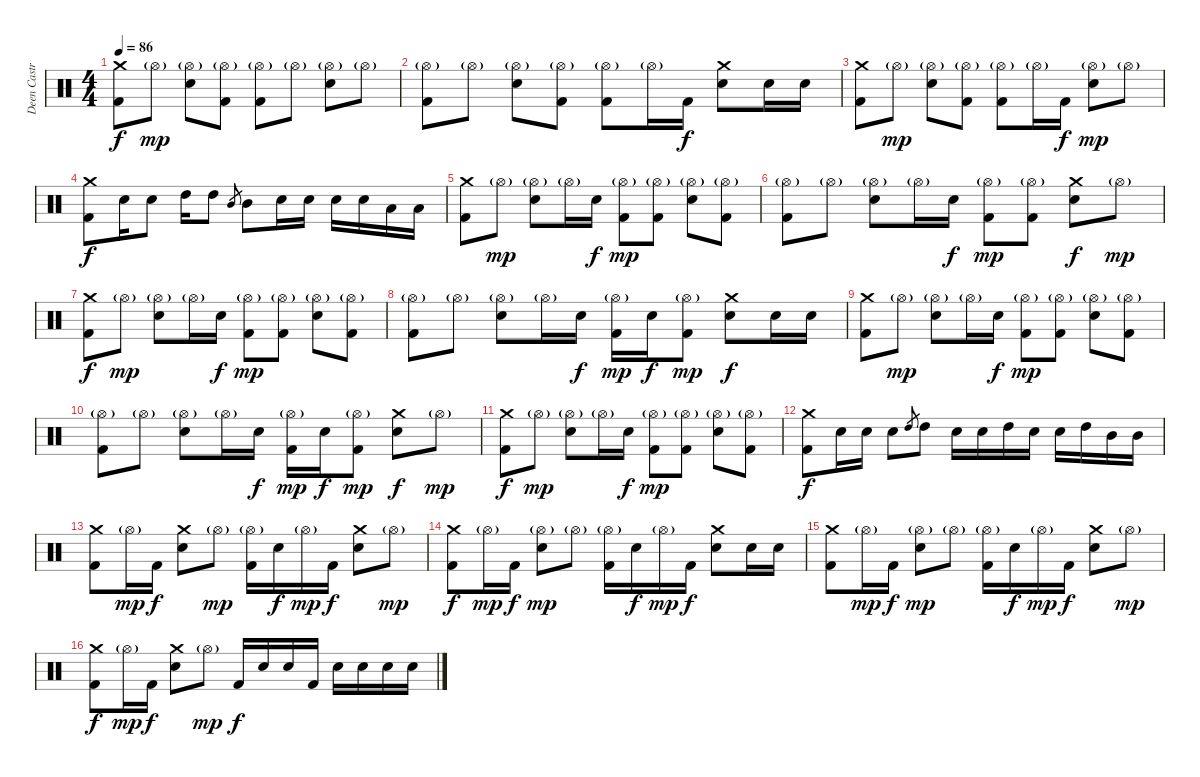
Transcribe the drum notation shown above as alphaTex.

\track ("Deen Castronovo" "Deen Castr") {instrument percussion}
\staff {score}
\articulation defaults
\ts (4 4)
\tempo 86
\clef neutral
\ks c
("Crash medium (hit)" "Kick (hit) 2").8{dy f} "Hi-Hat (open)"{g}.8{dy mp} ("Hi-Hat (open)"{g} "Electric Snare (hit)").8 ("Hi-Hat (open)"{g} "Kick (hit) 2").8 ("Hi-Hat (open)"{g} "Kick (hit) 2").8 "Hi-Hat (open)"{g}.8 ("Hi-Hat (open)"{g} "Electric Snare (hit)").8 "Hi-Hat (open)"{g}.8 |
("Hi-Hat (open)"{g} "Kick (hit) 2").8 "Hi-Hat (open)"{g}.8 ("Hi-Hat (open)"{g} "Electric Snare (hit)").8 ("Hi-Hat (open)"{g} "Kick (hit) 2").8 ("Hi-Hat (open)"{g} "Kick (hit) 2").8 "Hi-Hat (open)"{g}.16 "Kick (hit) 2".16{dy f} ("Crash medium (hit)" "Electric Snare (hit)").8 "Electric Snare (hit)".16 "Electric Snare (hit)".16 |
("Crash medium (hit)" "Kick (hit) 2").8 "Hi-Hat (open)"{g}.8{dy mp} ("Hi-Hat (open)"{g} "Electric Snare (hit)").8 ("Hi-Hat (open)"{g} "Kick (hit) 2").8 ("Hi-Hat (open)"{g} "Kick (hit) 2").8 "Hi-Hat (open)"{g}.16 "Kick (hit) 2".16{dy f} ("Hi-Hat (open)"{g} "Electric Snare (hit)").8{dy mp} "Hi-Hat (open)"{g}.8 |
("Crash medium (hit)" "Kick (hit) 2").8{dy f} "Electric Snare (hit)".16 "Electric Snare (hit)".8 "High Tom (hit)".16 "High Tom (hit)".8 "Mid Tom (hit)".8{gr} "Mid Tom (hit)".8 "Electric Snare (hit)".16 "Electric Snare (hit)".16 "Electric Snare (hit)".16 "Electric Snare (hit)".16 "Low Tom (hit)".16 "Low Tom (hit)".16 |
("Crash medium (hit)" "Kick (hit) 2").8 "Hi-Hat (open)"{g}.8{dy mp} ("Hi-Hat (open)"{g} "Electric Snare (hit)").8 "Hi-Hat (open)"{g}.16 "Electric Snare (hit)".16{dy f} ("Hi-Hat (open)"{g} "Kick (hit) 2").8{dy mp} ("Hi-Hat (open)"{g} "Kick (hit) 2").8 ("Hi-Hat (open)"{g} "Electric Snare (hit)").8 ("Hi-Hat (open)"{g} "Kick (hit) 2").8 |
("Hi-Hat (open)"{g} "Kick (hit) 2").8 "Hi-Hat (open)"{g}.8 ("Hi-Hat (open)"{g} "Electric Snare (hit)").8 "Hi-Hat (open)"{g}.16 "Electric Snare (hit)".16{dy f} ("Hi-Hat (open)"{g} "Kick (hit) 2").8{dy mp} ("Hi-Hat (open)"{g} "Kick (hit) 2").8 ("Crash medium (hit)" "Electric Snare (hit)").8{dy f} "Hi-Hat (open)"{g}.8{dy mp} |
("Crash medium (hit)" "Kick (hit) 2").8{dy f} "Hi-Hat (open)"{g}.8{dy mp} ("Hi-Hat (open)"{g} "Electric Snare (hit)").8 "Hi-Hat (open)"{g}.16 "Electric Snare (hit)".16{dy f} ("Hi-Hat (open)"{g} "Kick (hit) 2").8{dy mp} ("Hi-Hat (open)"{g} "Kick (hit) 2").8 ("Hi-Hat (open)"{g} "Electric Snare (hit)").8 ("Hi-Hat (open)"{g} "Kick (hit) 2").8 |
("Hi-Hat (open)"{g} "Kick (hit) 2").8 "Hi-Hat (open)"{g}.8 ("Hi-Hat (open)"{g} "Electric Snare (hit)").8 "Hi-Hat (open)"{g}.16 "Electric Snare (hit)".16{dy f} ("Hi-Hat (open)"{g} "Kick (hit) 2").16{dy mp} "Electric Snare (hit)".16{dy f} ("Hi-Hat (open)"{g} "Kick (hit) 2").8{dy mp} ("Crash medium (hit)" "Electric Snare (hit)").8{dy f} "Electric Snare (hit)".16 "Electric Snare (hit)".16 |
("Crash medium (hit)" "Kick (hit) 2").8 "Hi-Hat (open)"{g}.8{dy mp} ("Hi-Hat (open)"{g} "Electric Snare (hit)").8 "Hi-Hat (open)"{g}.16 "Electric Snare (hit)".16{dy f} ("Hi-Hat (open)"{g} "Kick (hit) 2").8{dy mp} ("Hi-Hat (open)"{g} "Kick (hit) 2").8 ("Hi-Hat (open)"{g} "Electric Snare (hit)").8 ("Hi-Hat (open)"{g} "Kick (hit) 2").8 |
("Hi-Hat (open)"{g} "Kick (hit) 2").8 "Hi-Hat (open)"{g}.8 ("Hi-Hat (open)"{g} "Electric Snare (hit)").8 "Hi-Hat (open)"{g}.16 "Electric Snare (hit)".16{dy f} ("Hi-Hat (open)"{g} "Kick (hit) 2").16{dy mp} "Electric Snare (hit)".16{dy f} ("Hi-Hat (open)"{g} "Kick (hit) 2").8{dy mp} ("Crash medium (hit)" "Electric Snare (hit)").8{dy f} "Hi-Hat (open)"{g}.8{dy mp} |
("Crash medium (hit)" "Kick (hit) 2").8{dy f} "Hi-Hat (open)"{g}.8{dy mp} ("Hi-Hat (open)"{g} "Electric Snare (hit)").8 "Hi-Hat (open)"{g}.16 "Electric Snare (hit)".16{dy f} ("Hi-Hat (open)"{g} "Kick (hit) 2").8{dy mp} ("Hi-Hat (open)"{g} "Kick (hit) 2").8 ("Hi-Hat (open)"{g} "Electric Snare (hit)").8 ("Hi-Hat (open)"{g} "Kick (hit) 2").8 |
("Crash medium (hit)" "Kick (hit) 2").8{dy f} "Electric Snare (hit)".16 "Electric Snare (hit)".16 "Electric Snare (hit)".8 "High Tom (hit)".8{gr} "High Tom (hit)".8 "Electric Snare (hit)".16 "Electric Snare (hit)".16 "High Tom (hit)".16 "Electric Snare (hit)".16 "Electric Snare (hit)".16 "High Tom (hit)".16 "Mid Tom (hit)".16 "Mid Tom (hit)".16 |
("Crash medium (hit)" "Kick (hit) 2").8 "Hi-Hat (open)"{g}.16{dy mp} "Kick (hit) 2".16{dy f} ("Crash medium (hit)" "Electric Snare (hit)").8 "Hi-Hat (open)"{g}.8{dy mp} ("Hi-Hat (open)"{g} "Kick (hit) 2").16 "Electric Snare (hit)".16{dy f} "Hi-Hat (open)"{g}.16{dy mp} "Kick (hit) 2".16{dy f} ("Crash medium (hit)" "Electric Snare (hit)").8 "Hi-Hat (open)"{g}.8{dy mp} |
("Crash medium (hit)" "Kick (hit) 2").8{dy f} "Hi-Hat (open)"{g}.16{dy mp} "Kick (hit) 2".16{dy f} ("Hi-Hat (open)"{g} "Electric Snare (hit)").8{dy mp} "Hi-Hat (open)"{g}.8 ("Hi-Hat (open)"{g} "Kick (hit) 2").16 "Electric Snare (hit)".16{dy f} "Hi-Hat (open)"{g}.16{dy mp} "Kick (hit) 2".16{dy f} ("Crash medium (hit)" "Electric Snare (hit)").8 "Electric Snare (hit)".16 "Electric Snare (hit)".16 |
("Crash medium (hit)" "Kick (hit) 2").8 "Hi-Hat (open)"{g}.16{dy mp} "Kick (hit) 2".16{dy f} ("Hi-Hat (open)"{g} "Electric Snare (hit)").8{dy mp} "Hi-Hat (open)"{g}.8 ("Hi-Hat (open)"{g} "Kick (hit) 2").16 "Electric Snare (hit)".16{dy f} "Hi-Hat (open)"{g}.16{dy mp} "Kick (hit) 2".16{dy f} ("Crash medium (hit)" "Electric Snare (hit)").8 "Hi-Hat (open)"{g}.8{dy mp} |
("Crash medium (hit)" "Kick (hit) 2").8{dy f} "Hi-Hat (open)"{g}.16{dy mp} "Kick (hit) 2".16{dy f} ("Crash medium (hit)" "Electric Snare (hit)").8 "Hi-Hat (open)"{g}.8{dy mp} "Kick (hit) 2".16{dy f} "Electric Snare (hit)".16 "Electric Snare (hit)".16 "Kick (hit) 2".16 "Electric Snare (hit)".16 "Electric Snare (hit)".16 "Electric Snare (hit)".16 "Electric Snare (hit)".16
